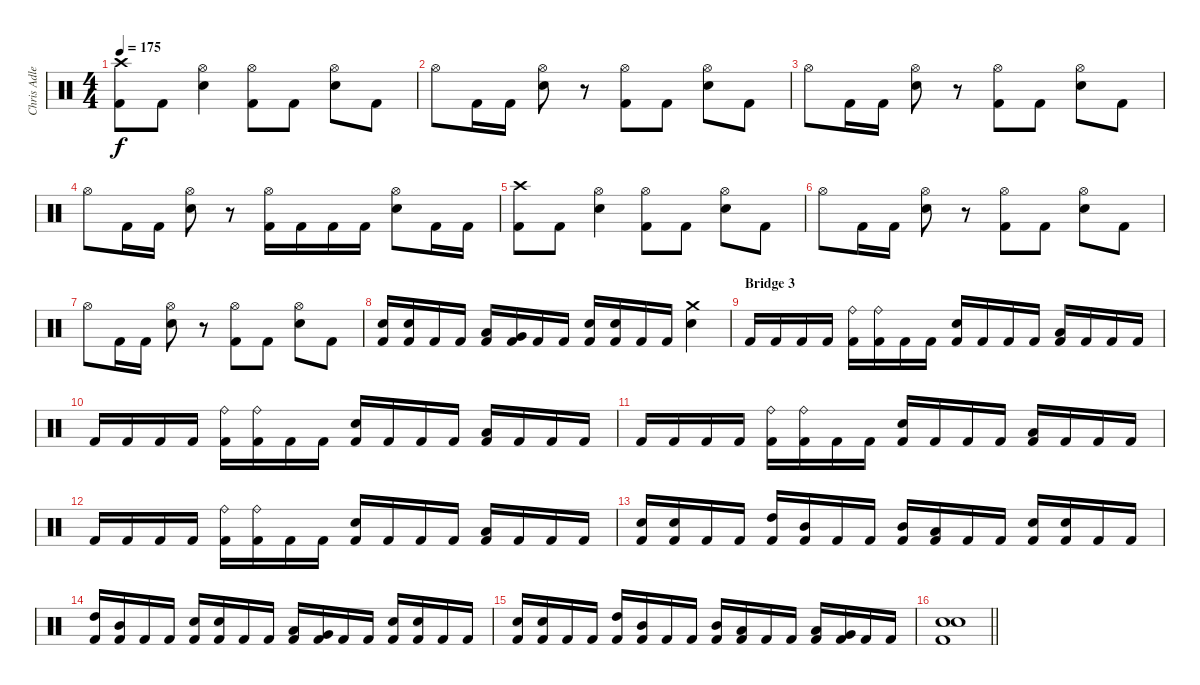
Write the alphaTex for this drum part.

\track ("Chris Adler" "Chris Adle") {instrument percussion}
\staff {score}
\articulation defaults
\ts (4 4)
\tempo 175
\clef neutral
\ks c
("Crash high (hit)" "Kick (hit) 2").8{dy f} "Kick (hit) 2".8 ("Hi-Hat (open)" "Electric Snare (hit)").4 ("Hi-Hat (open)" "Kick (hit) 2").8 "Kick (hit) 2".8 ("Hi-Hat (open)" "Electric Snare (hit)").8 "Kick (hit) 2".8 |
"Hi-Hat (open)".8 "Kick (hit) 2".16 "Kick (hit) 2".16 ("Hi-Hat (open)" "Electric Snare (hit)").8 r.8 ("Hi-Hat (open)" "Kick (hit) 2").8 "Kick (hit) 2".8 ("Hi-Hat (open)" "Electric Snare (hit)").8 "Kick (hit) 2".8 |
"Hi-Hat (open)".8 "Kick (hit) 2".16 "Kick (hit) 2".16 ("Hi-Hat (open)" "Electric Snare (hit)").8 r.8 ("Hi-Hat (open)" "Kick (hit) 2").8 "Kick (hit) 2".8 ("Hi-Hat (open)" "Electric Snare (hit)").8 "Kick (hit) 2".8 |
"Hi-Hat (open)".8 "Kick (hit) 2".16 "Kick (hit) 2".16 ("Hi-Hat (open)" "Electric Snare (hit)").8 r.8 ("Hi-Hat (open)" "Kick (hit) 2").16 "Kick (hit) 2".16 "Kick (hit) 2".16 "Kick (hit) 2".16 ("Hi-Hat (open)" "Electric Snare (hit)").8 "Kick (hit) 2".16 "Kick (hit) 2".16 |
("Crash high (hit)" "Kick (hit) 2").8 "Kick (hit) 2".8 ("Hi-Hat (open)" "Electric Snare (hit)").4 ("Hi-Hat (open)" "Kick (hit) 2").8 "Kick (hit) 2".8 ("Hi-Hat (open)" "Electric Snare (hit)").8 "Kick (hit) 2".8 |
"Hi-Hat (open)".8 "Kick (hit) 2".16 "Kick (hit) 2".16 ("Hi-Hat (open)" "Electric Snare (hit)").8 r.8 ("Hi-Hat (open)" "Kick (hit) 2").8 "Kick (hit) 2".8 ("Hi-Hat (open)" "Electric Snare (hit)").8 "Kick (hit) 2".8 |
"Hi-Hat (open)".8 "Kick (hit) 2".16 "Kick (hit) 2".16 ("Hi-Hat (open)" "Electric Snare (hit)").8 r.8 ("Hi-Hat (open)" "Kick (hit) 2").8 "Kick (hit) 2".8 ("Hi-Hat (open)" "Electric Snare (hit)").8 "Kick (hit) 2".8 |
("Electric Snare (hit)" "Kick (hit) 2").16 ("Electric Snare (hit)" "Kick (hit) 2").16 "Kick (hit) 2".16 "Kick (hit) 2".16 ("Low Tom (hit)" "Kick (hit) 2").16 ("Very Low Tom (hit)" "Kick (hit) 2").16 "Kick (hit) 2".16 "Kick (hit) 2".16 ("Electric Snare (hit)" "Kick (hit) 2").16 ("Electric Snare (hit)" "Kick (hit) 2").16 "Kick (hit) 2".16 "Kick (hit) 2".16 ("Crash medium (hit)" "Electric Snare (hit)").4 |
\section ("" "Bridge 3")
"Kick (hit) 2".16 "Kick (hit) 2".16 "Kick (hit) 2".16 "Kick (hit) 2".16 ("Ride (bell)" "Kick (hit) 2").16 ("Ride (bell)" "Kick (hit) 2").16 "Kick (hit) 2".16 "Kick (hit) 2".16 ("Electric Snare (hit)" "Kick (hit) 2").16 "Kick (hit) 2".16 "Kick (hit) 2".16 "Kick (hit) 2".16 ("Low Tom (hit)" "Kick (hit) 2").16 "Kick (hit) 2".16 "Kick (hit) 2".16 "Kick (hit) 2".16 |
"Kick (hit) 2".16 "Kick (hit) 2".16 "Kick (hit) 2".16 "Kick (hit) 2".16 ("Ride (bell)" "Kick (hit) 2").16 ("Ride (bell)" "Kick (hit) 2").16 "Kick (hit) 2".16 "Kick (hit) 2".16 ("Electric Snare (hit)" "Kick (hit) 2").16 "Kick (hit) 2".16 "Kick (hit) 2".16 "Kick (hit) 2".16 ("Low Tom (hit)" "Kick (hit) 2").16 "Kick (hit) 2".16 "Kick (hit) 2".16 "Kick (hit) 2".16 |
"Kick (hit) 2".16 "Kick (hit) 2".16 "Kick (hit) 2".16 "Kick (hit) 2".16 ("Ride (bell)" "Kick (hit) 2").16 ("Ride (bell)" "Kick (hit) 2").16 "Kick (hit) 2".16 "Kick (hit) 2".16 ("Electric Snare (hit)" "Kick (hit) 2").16 "Kick (hit) 2".16 "Kick (hit) 2".16 "Kick (hit) 2".16 ("Low Tom (hit)" "Kick (hit) 2").16 "Kick (hit) 2".16 "Kick (hit) 2".16 "Kick (hit) 2".16 |
"Kick (hit) 2".16 "Kick (hit) 2".16 "Kick (hit) 2".16 "Kick (hit) 2".16 ("Ride (bell)" "Kick (hit) 2").16 ("Ride (bell)" "Kick (hit) 2").16 "Kick (hit) 2".16 "Kick (hit) 2".16 ("Electric Snare (hit)" "Kick (hit) 2").16 "Kick (hit) 2".16 "Kick (hit) 2".16 "Kick (hit) 2".16 ("Low Tom (hit)" "Kick (hit) 2").16 "Kick (hit) 2".16 "Kick (hit) 2".16 "Kick (hit) 2".16 |
("Electric Snare (hit)" "Kick (hit) 2").16 ("Electric Snare (hit)" "Kick (hit) 2").16 "Kick (hit) 2".16 "Kick (hit) 2".16 ("High Tom (hit)" "Kick (hit) 2").16 ("Mid Tom (hit)" "Kick (hit) 2").16 "Kick (hit) 2".16 "Kick (hit) 2".16 ("Mid Tom (hit)" "Kick (hit) 2").16 ("Low Tom (hit)" "Kick (hit) 2").16 "Kick (hit) 2".16 "Kick (hit) 2".16 ("Electric Snare (hit)" "Kick (hit) 2").16 ("Electric Snare (hit)" "Kick (hit) 2").16 "Kick (hit) 2".16 "Kick (hit) 2".16 |
("High Tom (hit)" "Kick (hit) 2").16 ("Mid Tom (hit)" "Kick (hit) 2").16 "Kick (hit) 2".16 "Kick (hit) 2".16 ("Electric Snare (hit)" "Kick (hit) 2").16 ("Electric Snare (hit)" "Kick (hit) 2").16 "Kick (hit) 2".16 "Kick (hit) 2".16 ("Low Tom (hit)" "Kick (hit) 2").16 ("Very Low Tom (hit)" "Kick (hit) 2").16 "Kick (hit) 2".16 "Kick (hit) 2".16 ("Electric Snare (hit)" "Kick (hit) 2").16 ("Electric Snare (hit)" "Kick (hit) 2").16 "Kick (hit) 2".16 "Kick (hit) 2".16 |
("Electric Snare (hit)" "Kick (hit) 2").16 ("Electric Snare (hit)" "Kick (hit) 2").16 "Kick (hit) 2".16 "Kick (hit) 2".16 ("High Tom (hit)" "Kick (hit) 2").16 ("Mid Tom (hit)" "Kick (hit) 2").16 "Kick (hit) 2".16 "Kick (hit) 2".16 ("Mid Tom (hit)" "Kick (hit) 2").16 ("Low Tom (hit)" "Kick (hit) 2").16 "Kick (hit) 2".16 "Kick (hit) 2".16 ("Low Tom (hit)" "Kick (hit) 2").16 ("Very Low Tom (hit)" "Kick (hit) 2").16 "Kick (hit) 2".16 "Kick (hit) 2".16 |
\barLineRight lightlight
("Electric Snare (hit)" "Electric Snare (hit)" "Kick (hit) 2").1
